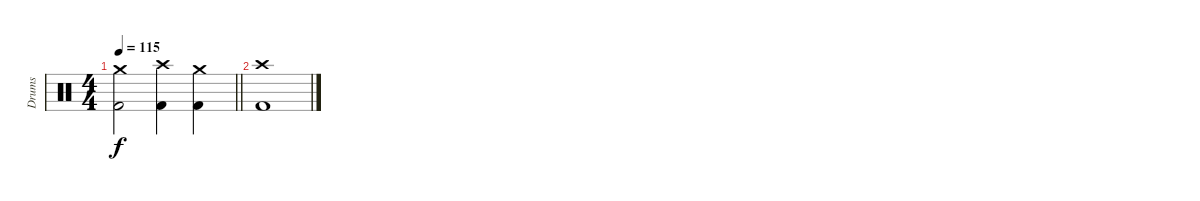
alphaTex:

\track ("Drums" "Drums") {instrument percussion}
\staff {score}
\articulation defaults
\ts (4 4)
\section ("" "")
\tempo 115
\clef neutral
\barLineRight lightlight
\ks c
("Crash medium (hit)" "Kick (hit) 2").2{dy f} ("Crash high (hit)" "Kick (hit) 2").4 ("Crash medium (hit)" "Kick (hit) 2").4 |
("Crash high (hit)" "Kick (hit) 2").1
